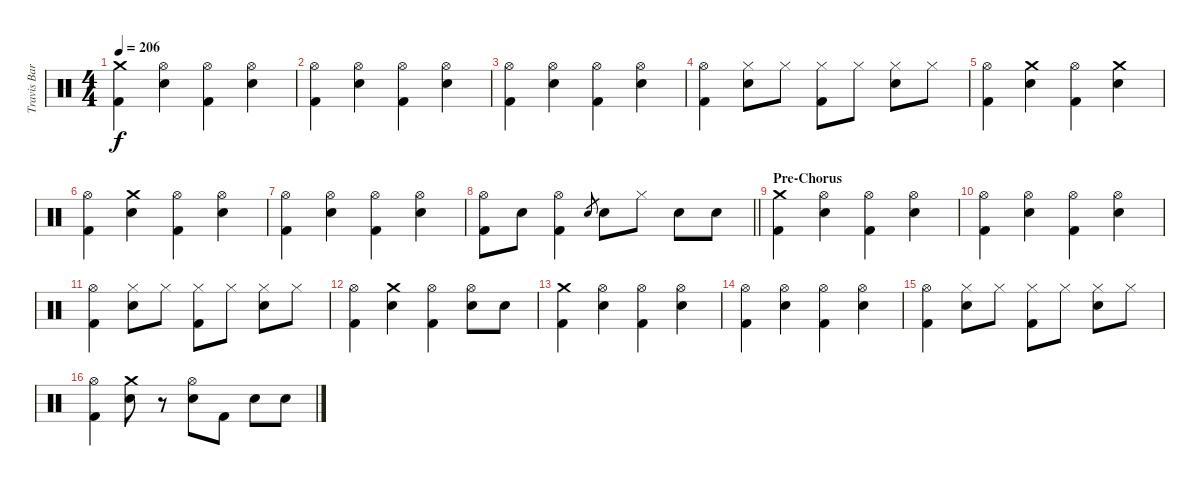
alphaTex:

\track ("Travis Barker - Drums" "Travis Bar") {instrument percussion}
\staff {score}
\articulation defaults
\ts (4 4)
\tempo 206
\clef neutral
\ks c
("Crash medium (hit)" "Kick (hit) 2").4{dy f} ("Hi-Hat (open)" "Electric Snare (hit)").4 ("Hi-Hat (open)" "Kick (hit) 2").4 ("Hi-Hat (open)" "Electric Snare (hit)").4 |
("Hi-Hat (open)" "Kick (hit) 2").4 ("Hi-Hat (open)" "Electric Snare (hit)").4 ("Hi-Hat (open)" "Kick (hit) 2").4 ("Hi-Hat (open)" "Electric Snare (hit)").4 |
("Hi-Hat (open)" "Kick (hit) 2").4 ("Hi-Hat (open)" "Electric Snare (hit)").4 ("Hi-Hat (open)" "Kick (hit) 2").4 ("Hi-Hat (open)" "Electric Snare (hit)").4 |
("Hi-Hat (open)" "Kick (hit) 2").4 ("Hi-Hat (closed)" "Electric Snare (hit)").8 "Hi-Hat (closed)".8 ("Hi-Hat (closed)" "Kick (hit) 2").8 "Hi-Hat (closed)".8 ("Hi-Hat (closed)" "Electric Snare (hit)").8 "Hi-Hat (closed)".8 |
("Hi-Hat (open)" "Kick (hit) 2").4 ("Crash medium (hit)" "Electric Snare (hit)").4 ("Hi-Hat (open)" "Kick (hit) 2").4 ("Crash medium (hit)" "Electric Snare (hit)").4 |
("Hi-Hat (open)" "Kick (hit) 2").4 ("Crash medium (hit)" "Electric Snare (hit)").4 ("Hi-Hat (open)" "Kick (hit) 2").4 ("Hi-Hat (open)" "Electric Snare (hit)").4 |
("Hi-Hat (open)" "Kick (hit) 2").4 ("Hi-Hat (open)" "Electric Snare (hit)").4 ("Hi-Hat (open)" "Kick (hit) 2").4 ("Hi-Hat (open)" "Electric Snare (hit)").4 |
\barLineRight lightlight
("Hi-Hat (open)" "Kick (hit) 2").8 "Electric Snare (hit)".8 ("Hi-Hat (open)" "Kick (hit) 2").4 "Electric Snare (hit)".8{gr} "Electric Snare (hit)".8 "Hi-Hat (closed)".8 "Electric Snare (hit)".8 "Electric Snare (hit)".8 |
\section ("" "Pre-Chorus")
("Crash medium (hit)" "Kick (hit) 2").4 ("Hi-Hat (open)" "Electric Snare (hit)").4 ("Hi-Hat (open)" "Kick (hit) 2").4 ("Hi-Hat (open)" "Electric Snare (hit)").4 |
("Hi-Hat (open)" "Kick (hit) 2").4 ("Hi-Hat (open)" "Electric Snare (hit)").4 ("Hi-Hat (open)" "Kick (hit) 2").4 ("Hi-Hat (open)" "Electric Snare (hit)").4 |
("Hi-Hat (open)" "Kick (hit) 2").4 ("Hi-Hat (closed)" "Electric Snare (hit)").8 "Hi-Hat (closed)".8 ("Hi-Hat (closed)" "Kick (hit) 2").8 "Hi-Hat (closed)".8 ("Hi-Hat (closed)" "Electric Snare (hit)").8 "Hi-Hat (closed)".8 |
("Hi-Hat (open)" "Kick (hit) 2").4 ("Crash medium (hit)" "Electric Snare (hit)").4 ("Hi-Hat (open)" "Kick (hit) 2").4 ("Hi-Hat (open)" "Electric Snare (hit)").8 "Electric Snare (hit)".8 |
("Crash medium (hit)" "Kick (hit) 2").4 ("Hi-Hat (open)" "Electric Snare (hit)").4 ("Hi-Hat (open)" "Kick (hit) 2").4 ("Hi-Hat (open)" "Electric Snare (hit)").4 |
("Hi-Hat (open)" "Kick (hit) 2").4 ("Hi-Hat (open)" "Electric Snare (hit)").4 ("Hi-Hat (open)" "Kick (hit) 2").4 ("Hi-Hat (open)" "Electric Snare (hit)").4 |
("Hi-Hat (open)" "Kick (hit) 2").4 ("Hi-Hat (closed)" "Electric Snare (hit)").8 "Hi-Hat (closed)".8 ("Hi-Hat (closed)" "Kick (hit) 2").8 "Hi-Hat (closed)".8 ("Hi-Hat (closed)" "Electric Snare (hit)").8 "Hi-Hat (closed)".8 |
("Hi-Hat (open)" "Kick (hit) 2").4 ("Crash medium (hit)" "Electric Snare (hit)").8 r.8 ("Hi-Hat (open)" "Electric Snare (hit)").8 "Kick (hit) 2".8 "Electric Snare (hit)".8 "Electric Snare (hit)".8
